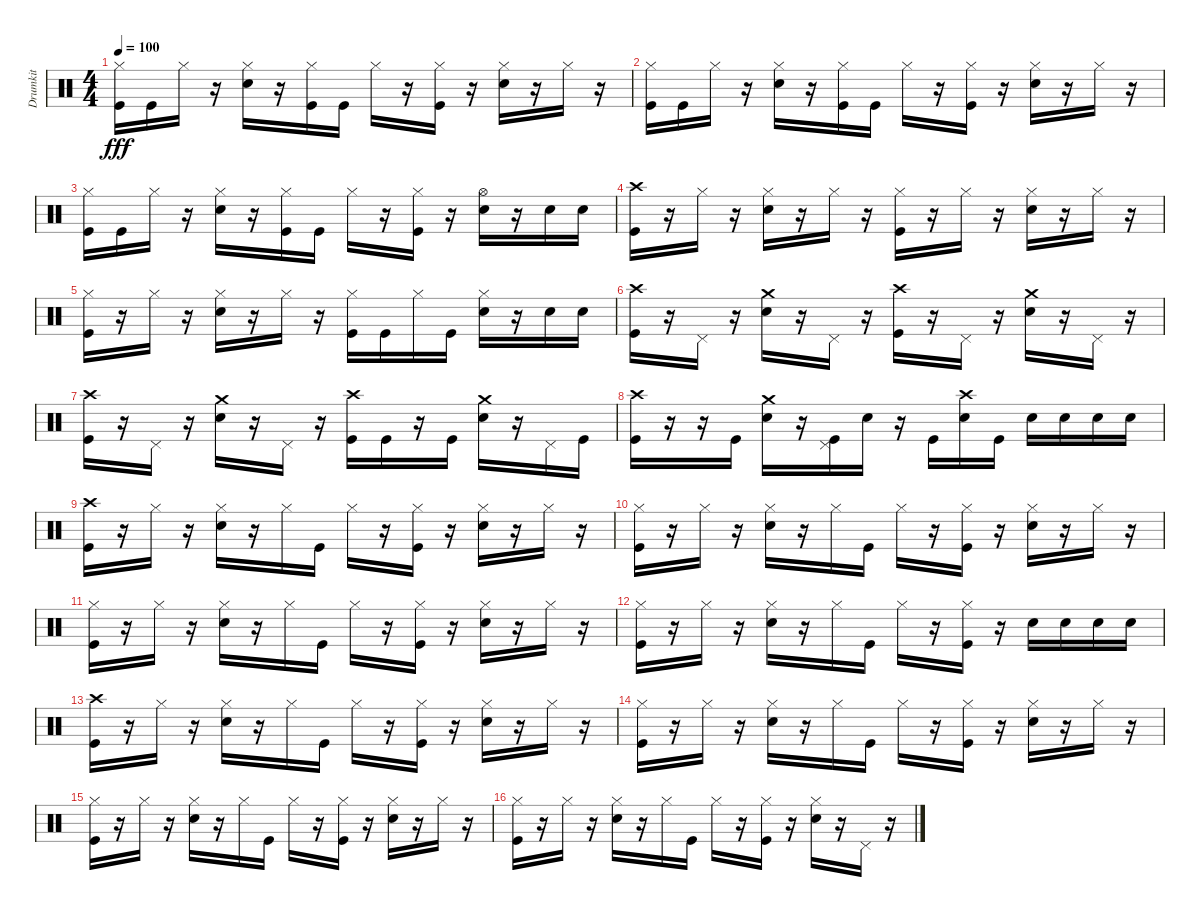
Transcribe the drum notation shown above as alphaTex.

\track ("Drumkit" "Drumkit") {instrument percussion}
\staff {score}
\articulation defaults
\ts (4 4)
\tempo 100
\clef neutral
\ks c
("Hi-Hat (closed)" "Kick (hit)").16{dy fff} "Kick (hit)".16 "Hi-Hat (closed)".16 r.16 ("Hi-Hat (closed)" "Snare (hit) 2").16 r.16 ("Hi-Hat (closed)" "Kick (hit)").16 "Kick (hit)".16 "Hi-Hat (closed)".16 r.16 ("Hi-Hat (closed)" "Kick (hit)").16 r.16 ("Hi-Hat (closed)" "Snare (hit) 2").16 r.16 "Hi-Hat (closed)".16 r.16 |
("Hi-Hat (closed)" "Kick (hit)").16 "Kick (hit)".16 "Hi-Hat (closed)".16 r.16 ("Hi-Hat (closed)" "Snare (hit) 2").16 r.16 ("Hi-Hat (closed)" "Kick (hit)").16 "Kick (hit)".16 "Hi-Hat (closed)".16 r.16 ("Hi-Hat (closed)" "Kick (hit)").16 r.16 ("Hi-Hat (closed)" "Snare (hit) 2").16 r.16 "Hi-Hat (closed)".16 r.16 |
("Hi-Hat (closed)" "Kick (hit)").16 "Kick (hit)".16 "Hi-Hat (closed)".16 r.16 ("Hi-Hat (closed)" "Snare (hit) 2").16 r.16 ("Hi-Hat (closed)" "Kick (hit)").16 "Kick (hit)".16 "Hi-Hat (closed)".16 r.16 ("Hi-Hat (closed)" "Kick (hit)").16 r.16 ("Hi-Hat (open)" "Snare (hit) 2").16 r.16 "Snare (hit) 2".16 "Snare (hit) 2".16 |
("Crash high (hit)" "Kick (hit)").16 r.16 "Hi-Hat (closed)".16 r.16 ("Hi-Hat (closed)" "Snare (hit) 2").16 r.16 "Hi-Hat (closed)".16 r.16 ("Hi-Hat (closed)" "Kick (hit)").16 r.16 "Hi-Hat (closed)".16 r.16 ("Hi-Hat (closed)" "Snare (hit) 2").16 r.16 "Hi-Hat (closed)".16 r.16 |
("Hi-Hat (closed)" "Kick (hit)").16 r.16 "Hi-Hat (closed)".16 r.16 ("Hi-Hat (closed)" "Snare (hit) 2").16 r.16 "Hi-Hat (closed)".16 r.16 ("Hi-Hat (closed)" "Kick (hit)").16 "Kick (hit)".16 "Hi-Hat (closed)".16 "Kick (hit)".16 ("Hi-Hat (closed)" "Snare (hit) 2").16 r.16 "Snare (hit) 2".16 "Snare (hit) 2".16 |
("Crash high (hit)" "Kick (hit)").16 r.16 "Pedal Hi-Hat (hit)".16 r.16 ("Crash medium (hit)" "Snare (hit) 2").16 r.16 "Pedal Hi-Hat (hit)".16 r.16 ("Crash high (hit)" "Kick (hit)").16 r.16 "Pedal Hi-Hat (hit)".16 r.16 ("Crash medium (hit)" "Snare (hit) 2").16 r.16 "Pedal Hi-Hat (hit)".16 r.16 |
("Crash high (hit)" "Kick (hit)").16 r.16 "Pedal Hi-Hat (hit)".16 r.16 ("Crash medium (hit)" "Snare (hit) 2").16 r.16 "Pedal Hi-Hat (hit)".16 r.16 ("Crash high (hit)" "Kick (hit)").16 "Kick (hit)".16 r.16 "Kick (hit)".16 ("Crash medium (hit)" "Snare (hit) 2").16 r.16 "Pedal Hi-Hat (hit)".16 "Kick (hit)".16 |
("Crash high (hit)" "Kick (hit)").16 r.16 r.16 "Kick (hit)".16 ("Crash medium (hit)" "Snare (hit) 2").16 r.16 ("Pedal Hi-Hat (hit)" "Kick (hit)").16 "Snare (hit) 2".16 r.16 "Kick (hit)".16 ("Crash high (hit)" "Snare (hit) 2").16 "Kick (hit)".16 "Snare (hit) 2".16 "Snare (hit) 2".16 "Snare (hit) 2".16 "Snare (hit) 2".16 |
("Crash high (hit)" "Kick (hit)").16 r.16 "Hi-Hat (closed)".16 r.16 ("Hi-Hat (closed)" "Snare (hit) 2").16 r.16 "Hi-Hat (closed)".16 "Kick (hit)".16 "Hi-Hat (closed)".16 r.16 ("Hi-Hat (closed)" "Kick (hit)").16 r.16 ("Hi-Hat (closed)" "Snare (hit) 2").16 r.16 "Hi-Hat (closed)".16 r.16 |
("Hi-Hat (closed)" "Kick (hit)").16 r.16 "Hi-Hat (closed)".16 r.16 ("Hi-Hat (closed)" "Snare (hit) 2").16 r.16 "Hi-Hat (closed)".16 "Kick (hit)".16 "Hi-Hat (closed)".16 r.16 ("Hi-Hat (closed)" "Kick (hit)").16 r.16 ("Hi-Hat (closed)" "Snare (hit) 2").16 r.16 "Hi-Hat (closed)".16 r.16 |
("Hi-Hat (closed)" "Kick (hit)").16 r.16 "Hi-Hat (closed)".16 r.16 ("Hi-Hat (closed)" "Snare (hit) 2").16 r.16 "Hi-Hat (closed)".16 "Kick (hit)".16 "Hi-Hat (closed)".16 r.16 ("Hi-Hat (closed)" "Kick (hit)").16 r.16 ("Hi-Hat (closed)" "Snare (hit) 2").16 r.16 "Hi-Hat (closed)".16 r.16 |
("Hi-Hat (closed)" "Kick (hit)").16 r.16 "Hi-Hat (closed)".16 r.16 ("Hi-Hat (closed)" "Snare (hit) 2").16 r.16 "Hi-Hat (closed)".16 "Kick (hit)".16 "Hi-Hat (closed)".16 r.16 ("Hi-Hat (closed)" "Kick (hit)").16 r.16 "Snare (hit) 2".16 "Snare (hit) 2".16 "Snare (hit) 2".16 "Snare (hit) 2".16 |
("Crash high (hit)" "Kick (hit)").16 r.16 "Hi-Hat (closed)".16 r.16 ("Hi-Hat (closed)" "Snare (hit) 2").16 r.16 "Hi-Hat (closed)".16 "Kick (hit)".16 "Hi-Hat (closed)".16 r.16 ("Hi-Hat (closed)" "Kick (hit)").16 r.16 ("Hi-Hat (closed)" "Snare (hit) 2").16 r.16 "Hi-Hat (closed)".16 r.16 |
("Hi-Hat (closed)" "Kick (hit)").16 r.16 "Hi-Hat (closed)".16 r.16 ("Hi-Hat (closed)" "Snare (hit) 2").16 r.16 "Hi-Hat (closed)".16 "Kick (hit)".16 "Hi-Hat (closed)".16 r.16 ("Hi-Hat (closed)" "Kick (hit)").16 r.16 ("Hi-Hat (closed)" "Snare (hit) 2").16 r.16 "Hi-Hat (closed)".16 r.16 |
("Hi-Hat (closed)" "Kick (hit)").16 r.16 "Hi-Hat (closed)".16 r.16 ("Hi-Hat (closed)" "Snare (hit) 2").16 r.16 "Hi-Hat (closed)".16 "Kick (hit)".16 "Hi-Hat (closed)".16 r.16 ("Hi-Hat (closed)" "Kick (hit)").16 r.16 ("Hi-Hat (closed)" "Snare (hit) 2").16 r.16 "Hi-Hat (closed)".16 r.16 |
("Hi-Hat (closed)" "Kick (hit)").16 r.16 "Hi-Hat (closed)".16 r.16 ("Hi-Hat (closed)" "Snare (hit) 2").16 r.16 "Hi-Hat (closed)".16 "Kick (hit)".16 "Hi-Hat (closed)".16 r.16 ("Hi-Hat (closed)" "Kick (hit)").16 r.16 ("Hi-Hat (closed)" "Snare (hit) 2").16 r.16 "Pedal Hi-Hat (hit)".16 r.16
